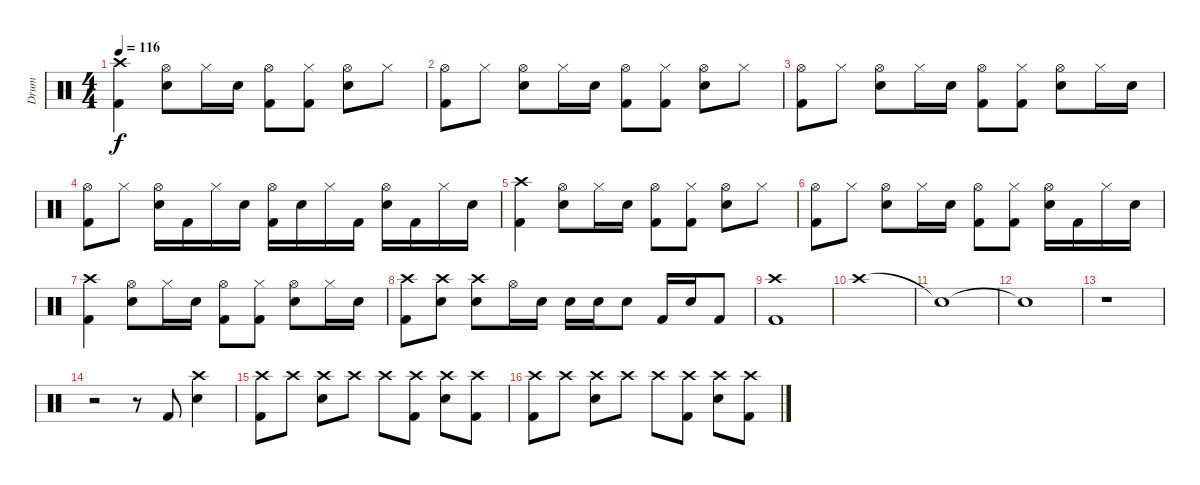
\track ("Drum" "Drum") {instrument percussion}
\staff {score}
\articulation defaults
\ts (4 4)
\tempo 116
\clef neutral
\ks c
("Crash high (hit)" "Kick (hit) 2").4{dy f} ("Hi-Hat (open)" "Electric Snare (hit)").8 "Hi-Hat (closed)".16 "Electric Snare (hit)".16 ("Hi-Hat (open)" "Kick (hit) 2").8 ("Hi-Hat (closed)" "Kick (hit) 2").8 ("Hi-Hat (open)" "Electric Snare (hit)").8 "Hi-Hat (closed)".8 |
("Hi-Hat (open)" "Kick (hit) 2").8 "Hi-Hat (closed)".8 ("Hi-Hat (open)" "Electric Snare (hit)").8 "Hi-Hat (closed)".16 "Electric Snare (hit)".16 ("Hi-Hat (open)" "Kick (hit) 2").8 ("Hi-Hat (closed)" "Kick (hit) 2").8 ("Hi-Hat (open)" "Electric Snare (hit)").8 "Hi-Hat (closed)".8 |
("Hi-Hat (open)" "Kick (hit) 2").8 "Hi-Hat (closed)".8 ("Hi-Hat (open)" "Electric Snare (hit)").8 "Hi-Hat (closed)".16 "Electric Snare (hit)".16 ("Hi-Hat (open)" "Kick (hit) 2").8 ("Hi-Hat (closed)" "Kick (hit) 2").8 ("Hi-Hat (open)" "Electric Snare (hit)").8 "Hi-Hat (closed)".16 "Electric Snare (hit)".16 |
("Hi-Hat (open)" "Kick (hit) 2").8 "Hi-Hat (closed)".8 ("Hi-Hat (open)" "Electric Snare (hit)").16 "Kick (hit) 2".16 "Hi-Hat (closed)".16 "Electric Snare (hit)".16 ("Hi-Hat (open)" "Kick (hit) 2").16 "Electric Snare (hit)".16 "Hi-Hat (closed)".16 "Kick (hit) 2".16 ("Hi-Hat (open)" "Electric Snare (hit)").16 "Kick (hit) 2".16 "Hi-Hat (closed)".16 "Electric Snare (hit)".16 |
("Crash high (hit)" "Kick (hit) 2").4 ("Hi-Hat (open)" "Electric Snare (hit)").8 "Hi-Hat (closed)".16 "Electric Snare (hit)".16 ("Hi-Hat (open)" "Kick (hit) 2").8 ("Hi-Hat (closed)" "Kick (hit) 2").8 ("Hi-Hat (open)" "Electric Snare (hit)").8 "Hi-Hat (closed)".8 |
("Hi-Hat (open)" "Kick (hit) 2").8 "Hi-Hat (closed)".8 ("Hi-Hat (open)" "Electric Snare (hit)").8 "Hi-Hat (closed)".16 "Electric Snare (hit)".16 ("Hi-Hat (open)" "Kick (hit) 2").8 ("Hi-Hat (closed)" "Kick (hit) 2").8 ("Hi-Hat (open)" "Electric Snare (hit)").16 "Kick (hit) 2".16 "Hi-Hat (closed)".16 "Electric Snare (hit)".16 |
("Crash high (hit)" "Kick (hit) 2").4 ("Hi-Hat (open)" "Electric Snare (hit)").8 "Hi-Hat (closed)".16 "Electric Snare (hit)".16 ("Hi-Hat (open)" "Kick (hit) 2").8 ("Hi-Hat (closed)" "Kick (hit) 2").8 ("Hi-Hat (open)" "Electric Snare (hit)").8 "Hi-Hat (closed)".16 "Electric Snare (hit)".16 |
("Crash high (hit)" "Kick (hit) 2").8 ("Crash high (hit)" "Electric Snare (hit)").8 ("Crash high (hit)" "Electric Snare (hit)").8 "Hi-Hat (open)".16 "Electric Snare (hit)".16 "Electric Snare (hit)".16 "Electric Snare (hit)".16 "Electric Snare (hit)".8 "Kick (hit) 2".16 "Electric Snare (hit)".16 "Kick (hit) 2".8 |
("Crash high (hit)" "Kick (hit) 2").1 |
"Crash high (hit)".1 |
"Snare (hit)"{t}.1 |
"Snare (hit)"{t}.1 |
r.1 |
r.2 r.8 "Kick (hit) 2".8 ("Crash high (hit)" "Electric Snare (hit)").4 |
("Crash high (hit)" "Kick (hit) 2").8 "Crash high (hit)".8 ("Crash high (hit)" "Electric Snare (hit)").8 "Crash high (hit)".8 "Crash high (hit)".8 ("Crash high (hit)" "Kick (hit) 2").8 ("Crash high (hit)" "Electric Snare (hit)").8 ("Crash high (hit)" "Kick (hit) 2").8 |
("Crash high (hit)" "Kick (hit) 2").8 "Crash high (hit)".8 ("Crash high (hit)" "Electric Snare (hit)").8 "Crash high (hit)".8 "Crash high (hit)".8 ("Crash high (hit)" "Kick (hit) 2").8 ("Crash high (hit)" "Electric Snare (hit)").8 ("Crash high (hit)" "Kick (hit) 2").8
